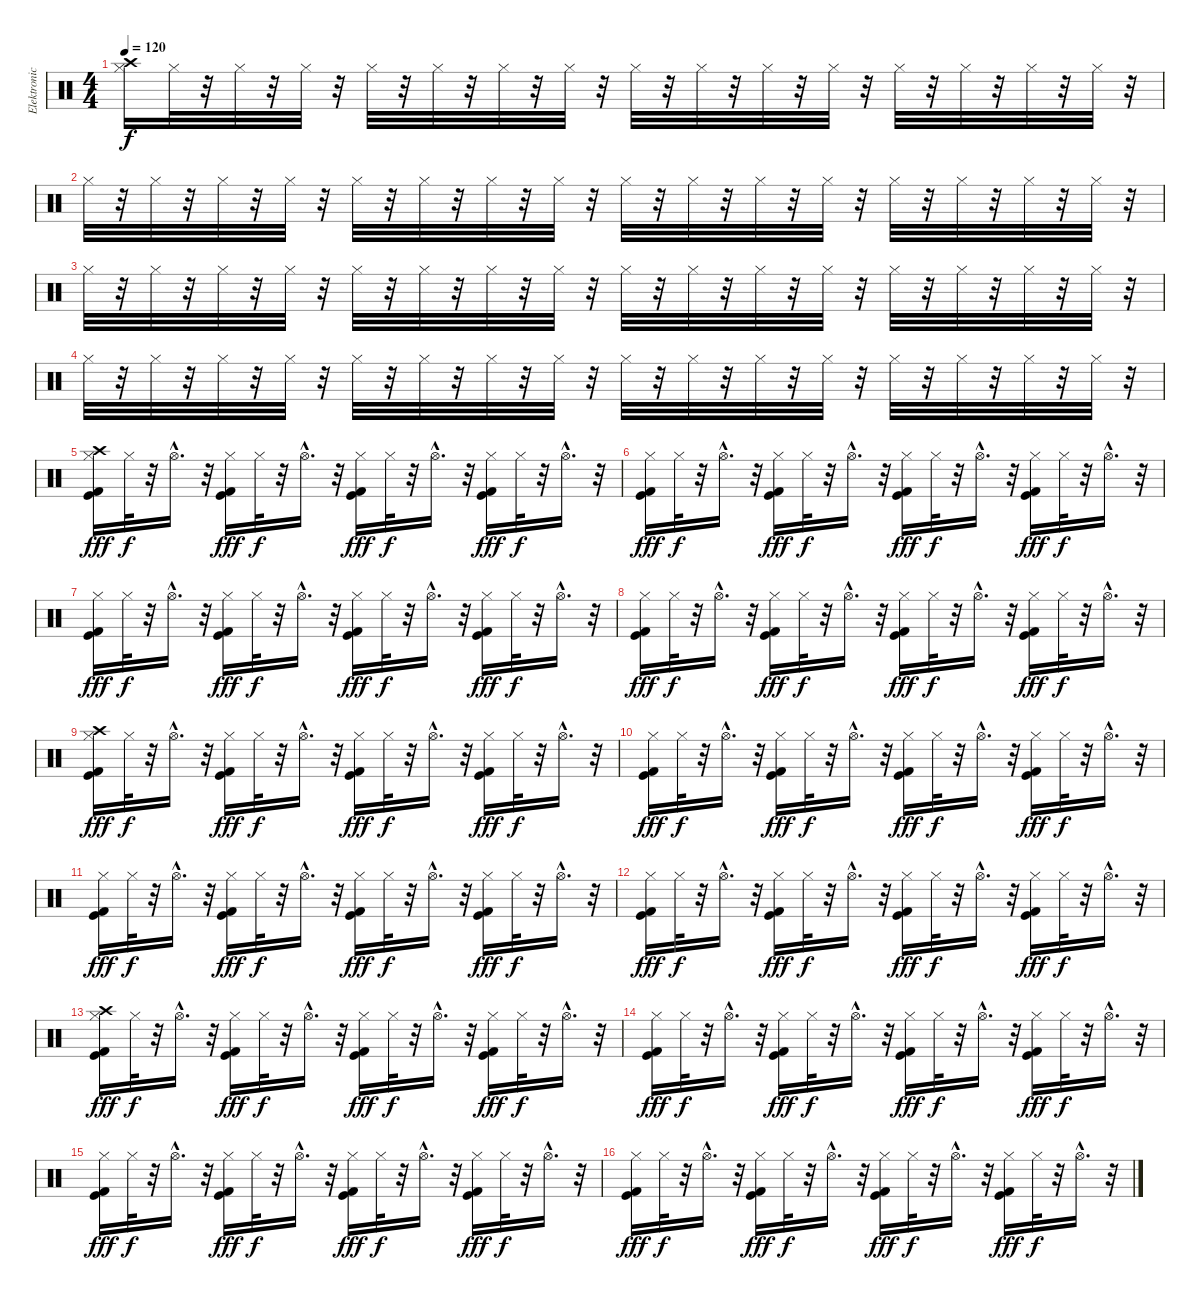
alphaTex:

\track ("Elektronické bicí 2" "Elektronic") {instrument percussion}
\staff {score}
\articulation defaults
\ts (4 4)
\tempo 120
\clef neutral
\ks c
("Crash high (hit)" "Hi-Hat (closed)").16{dy f} "Hi-Hat (closed)".32 r.32 "Hi-Hat (closed)".32 r.32 "Hi-Hat (closed)".32 r.32 "Hi-Hat (closed)".32 r.32 "Hi-Hat (closed)".32 r.32 "Hi-Hat (closed)".32 r.32 "Hi-Hat (closed)".32 r.32 "Hi-Hat (closed)".32 r.32 "Hi-Hat (closed)".32 r.32 "Hi-Hat (closed)".32 r.32 "Hi-Hat (closed)".32 r.32 "Hi-Hat (closed)".32 r.32 "Hi-Hat (closed)".32 r.32 "Hi-Hat (closed)".32 r.32 "Hi-Hat (closed)".32 r.32 |
"Hi-Hat (closed)".32 r.32 "Hi-Hat (closed)".32 r.32 "Hi-Hat (closed)".32 r.32 "Hi-Hat (closed)".32 r.32 "Hi-Hat (closed)".32 r.32 "Hi-Hat (closed)".32 r.32 "Hi-Hat (closed)".32 r.32 "Hi-Hat (closed)".32 r.32 "Hi-Hat (closed)".32 r.32 "Hi-Hat (closed)".32 r.32 "Hi-Hat (closed)".32 r.32 "Hi-Hat (closed)".32 r.32 "Hi-Hat (closed)".32 r.32 "Hi-Hat (closed)".32 r.32 "Hi-Hat (closed)".32 r.32 "Hi-Hat (closed)".32 r.32 |
"Hi-Hat (closed)".32 r.32 "Hi-Hat (closed)".32 r.32 "Hi-Hat (closed)".32 r.32 "Hi-Hat (closed)".32 r.32 "Hi-Hat (closed)".32 r.32 "Hi-Hat (closed)".32 r.32 "Hi-Hat (closed)".32 r.32 "Hi-Hat (closed)".32 r.32 "Hi-Hat (closed)".32 r.32 "Hi-Hat (closed)".32 r.32 "Hi-Hat (closed)".32 r.32 "Hi-Hat (closed)".32 r.32 "Hi-Hat (closed)".32 r.32 "Hi-Hat (closed)".32 r.32 "Hi-Hat (closed)".32 r.32 "Hi-Hat (closed)".32 r.32 |
"Hi-Hat (closed)".32 r.32 "Hi-Hat (closed)".32 r.32 "Hi-Hat (closed)".32 r.32 "Hi-Hat (closed)".32 r.32 "Hi-Hat (closed)".32 r.32 "Hi-Hat (closed)".32 r.32 "Hi-Hat (closed)".32 r.32 "Hi-Hat (closed)".32 r.32 "Hi-Hat (closed)".32 r.32 "Hi-Hat (closed)".32 r.32 "Hi-Hat (closed)".32 r.32 "Hi-Hat (closed)".32 r.32 "Hi-Hat (closed)".32 r.32 "Hi-Hat (closed)".32 r.32 "Hi-Hat (closed)".32 r.32 "Hi-Hat (closed)".32 r.32 |
("Crash high (hit)" "Hi-Hat (closed)" "Kick (hit) 2" "Kick (hit)").16{dy fff} "Hi-Hat (closed)".32{dy f} r.32 "Hi-Hat (open)"{hac}.16{d} r.32 ("Hi-Hat (closed)" "Kick (hit) 2" "Kick (hit)").16{dy fff} "Hi-Hat (closed)".32{dy f} r.32 "Hi-Hat (open)"{hac}.16{d} r.32 ("Hi-Hat (closed)" "Kick (hit) 2" "Kick (hit)").16{dy fff} "Hi-Hat (closed)".32{dy f} r.32 "Hi-Hat (open)"{hac}.16{d} r.32 ("Hi-Hat (closed)" "Kick (hit) 2" "Kick (hit)").16{dy fff} "Hi-Hat (closed)".32{dy f} r.32 "Hi-Hat (open)"{hac}.16{d} r.32 |
("Hi-Hat (closed)" "Kick (hit) 2" "Kick (hit)").16{dy fff} "Hi-Hat (closed)".32{dy f} r.32 "Hi-Hat (open)"{hac}.16{d} r.32 ("Hi-Hat (closed)" "Kick (hit) 2" "Kick (hit)").16{dy fff} "Hi-Hat (closed)".32{dy f} r.32 "Hi-Hat (open)"{hac}.16{d} r.32 ("Hi-Hat (closed)" "Kick (hit) 2" "Kick (hit)").16{dy fff} "Hi-Hat (closed)".32{dy f} r.32 "Hi-Hat (open)"{hac}.16{d} r.32 ("Hi-Hat (closed)" "Kick (hit) 2" "Kick (hit)").16{dy fff} "Hi-Hat (closed)".32{dy f} r.32 "Hi-Hat (open)"{hac}.16{d} r.32 |
("Hi-Hat (closed)" "Kick (hit) 2" "Kick (hit)").16{dy fff} "Hi-Hat (closed)".32{dy f} r.32 "Hi-Hat (open)"{hac}.16{d} r.32 ("Hi-Hat (closed)" "Kick (hit) 2" "Kick (hit)").16{dy fff} "Hi-Hat (closed)".32{dy f} r.32 "Hi-Hat (open)"{hac}.16{d} r.32 ("Hi-Hat (closed)" "Kick (hit) 2" "Kick (hit)").16{dy fff} "Hi-Hat (closed)".32{dy f} r.32 "Hi-Hat (open)"{hac}.16{d} r.32 ("Hi-Hat (closed)" "Kick (hit) 2" "Kick (hit)").16{dy fff} "Hi-Hat (closed)".32{dy f} r.32 "Hi-Hat (open)"{hac}.16{d} r.32 |
("Hi-Hat (closed)" "Kick (hit) 2" "Kick (hit)").16{dy fff} "Hi-Hat (closed)".32{dy f} r.32 "Hi-Hat (open)"{hac}.16{d} r.32 ("Hi-Hat (closed)" "Kick (hit) 2" "Kick (hit)").16{dy fff} "Hi-Hat (closed)".32{dy f} r.32 "Hi-Hat (open)"{hac}.16{d} r.32 ("Hi-Hat (closed)" "Kick (hit) 2" "Kick (hit)").16{dy fff} "Hi-Hat (closed)".32{dy f} r.32 "Hi-Hat (open)"{hac}.16{d} r.32 ("Hi-Hat (closed)" "Kick (hit) 2" "Kick (hit)").16{dy fff} "Hi-Hat (closed)".32{dy f} r.32 "Hi-Hat (open)"{hac}.16{d} r.32 |
("Crash high (hit)" "Hi-Hat (closed)" "Kick (hit) 2" "Kick (hit)").16{dy fff} "Hi-Hat (closed)".32{dy f} r.32 "Hi-Hat (open)"{hac}.16{d} r.32 ("Hi-Hat (closed)" "Kick (hit) 2" "Kick (hit)").16{dy fff} "Hi-Hat (closed)".32{dy f} r.32 "Hi-Hat (open)"{hac}.16{d} r.32 ("Hi-Hat (closed)" "Kick (hit) 2" "Kick (hit)").16{dy fff} "Hi-Hat (closed)".32{dy f} r.32 "Hi-Hat (open)"{hac}.16{d} r.32 ("Hi-Hat (closed)" "Kick (hit) 2" "Kick (hit)").16{dy fff} "Hi-Hat (closed)".32{dy f} r.32 "Hi-Hat (open)"{hac}.16{d} r.32 |
("Hi-Hat (closed)" "Kick (hit) 2" "Kick (hit)").16{dy fff} "Hi-Hat (closed)".32{dy f} r.32 "Hi-Hat (open)"{hac}.16{d} r.32 ("Hi-Hat (closed)" "Kick (hit) 2" "Kick (hit)").16{dy fff} "Hi-Hat (closed)".32{dy f} r.32 "Hi-Hat (open)"{hac}.16{d} r.32 ("Hi-Hat (closed)" "Kick (hit) 2" "Kick (hit)").16{dy fff} "Hi-Hat (closed)".32{dy f} r.32 "Hi-Hat (open)"{hac}.16{d} r.32 ("Hi-Hat (closed)" "Kick (hit) 2" "Kick (hit)").16{dy fff} "Hi-Hat (closed)".32{dy f} r.32 "Hi-Hat (open)"{hac}.16{d} r.32 |
("Hi-Hat (closed)" "Kick (hit) 2" "Kick (hit)").16{dy fff} "Hi-Hat (closed)".32{dy f} r.32 "Hi-Hat (open)"{hac}.16{d} r.32 ("Hi-Hat (closed)" "Kick (hit) 2" "Kick (hit)").16{dy fff} "Hi-Hat (closed)".32{dy f} r.32 "Hi-Hat (open)"{hac}.16{d} r.32 ("Hi-Hat (closed)" "Kick (hit) 2" "Kick (hit)").16{dy fff} "Hi-Hat (closed)".32{dy f} r.32 "Hi-Hat (open)"{hac}.16{d} r.32 ("Hi-Hat (closed)" "Kick (hit) 2" "Kick (hit)").16{dy fff} "Hi-Hat (closed)".32{dy f} r.32 "Hi-Hat (open)"{hac}.16{d} r.32 |
("Hi-Hat (closed)" "Kick (hit) 2" "Kick (hit)").16{dy fff} "Hi-Hat (closed)".32{dy f} r.32 "Hi-Hat (open)"{hac}.16{d} r.32 ("Hi-Hat (closed)" "Kick (hit) 2" "Kick (hit)").16{dy fff} "Hi-Hat (closed)".32{dy f} r.32 "Hi-Hat (open)"{hac}.16{d} r.32 ("Hi-Hat (closed)" "Kick (hit) 2" "Kick (hit)").16{dy fff} "Hi-Hat (closed)".32{dy f} r.32 "Hi-Hat (open)"{hac}.16{d} r.32 ("Hi-Hat (closed)" "Kick (hit) 2" "Kick (hit)").16{dy fff} "Hi-Hat (closed)".32{dy f} r.32 "Hi-Hat (open)"{hac}.16{d} r.32 |
("Crash high (hit)" "Hi-Hat (closed)" "Kick (hit) 2" "Kick (hit)").16{dy fff} "Hi-Hat (closed)".32{dy f} r.32 "Hi-Hat (open)"{hac}.16{d} r.32 ("Hi-Hat (closed)" "Kick (hit) 2" "Kick (hit)").16{dy fff} "Hi-Hat (closed)".32{dy f} r.32 "Hi-Hat (open)"{hac}.16{d} r.32 ("Hi-Hat (closed)" "Kick (hit) 2" "Kick (hit)").16{dy fff} "Hi-Hat (closed)".32{dy f} r.32 "Hi-Hat (open)"{hac}.16{d} r.32 ("Hi-Hat (closed)" "Kick (hit) 2" "Kick (hit)").16{dy fff} "Hi-Hat (closed)".32{dy f} r.32 "Hi-Hat (open)"{hac}.16{d} r.32 |
("Hi-Hat (closed)" "Kick (hit) 2" "Kick (hit)").16{dy fff} "Hi-Hat (closed)".32{dy f} r.32 "Hi-Hat (open)"{hac}.16{d} r.32 ("Hi-Hat (closed)" "Kick (hit) 2" "Kick (hit)").16{dy fff} "Hi-Hat (closed)".32{dy f} r.32 "Hi-Hat (open)"{hac}.16{d} r.32 ("Hi-Hat (closed)" "Kick (hit) 2" "Kick (hit)").16{dy fff} "Hi-Hat (closed)".32{dy f} r.32 "Hi-Hat (open)"{hac}.16{d} r.32 ("Hi-Hat (closed)" "Kick (hit) 2" "Kick (hit)").16{dy fff} "Hi-Hat (closed)".32{dy f} r.32 "Hi-Hat (open)"{hac}.16{d} r.32 |
("Hi-Hat (closed)" "Kick (hit) 2" "Kick (hit)").16{dy fff} "Hi-Hat (closed)".32{dy f} r.32 "Hi-Hat (open)"{hac}.16{d} r.32 ("Hi-Hat (closed)" "Kick (hit) 2" "Kick (hit)").16{dy fff} "Hi-Hat (closed)".32{dy f} r.32 "Hi-Hat (open)"{hac}.16{d} r.32 ("Hi-Hat (closed)" "Kick (hit) 2" "Kick (hit)").16{dy fff} "Hi-Hat (closed)".32{dy f} r.32 "Hi-Hat (open)"{hac}.16{d} r.32 ("Hi-Hat (closed)" "Kick (hit) 2" "Kick (hit)").16{dy fff} "Hi-Hat (closed)".32{dy f} r.32 "Hi-Hat (open)"{hac}.16{d} r.32 |
("Hi-Hat (closed)" "Kick (hit) 2" "Kick (hit)").16{dy fff} "Hi-Hat (closed)".32{dy f} r.32 "Hi-Hat (open)"{hac}.16{d} r.32 ("Hi-Hat (closed)" "Kick (hit) 2" "Kick (hit)").16{dy fff} "Hi-Hat (closed)".32{dy f} r.32 "Hi-Hat (open)"{hac}.16{d} r.32 ("Hi-Hat (closed)" "Kick (hit) 2" "Kick (hit)").16{dy fff} "Hi-Hat (closed)".32{dy f} r.32 "Hi-Hat (open)"{hac}.16{d} r.32 ("Hi-Hat (closed)" "Kick (hit) 2" "Kick (hit)").16{dy fff} "Hi-Hat (closed)".32{dy f} r.32 "Hi-Hat (open)"{hac}.16{d} r.32
